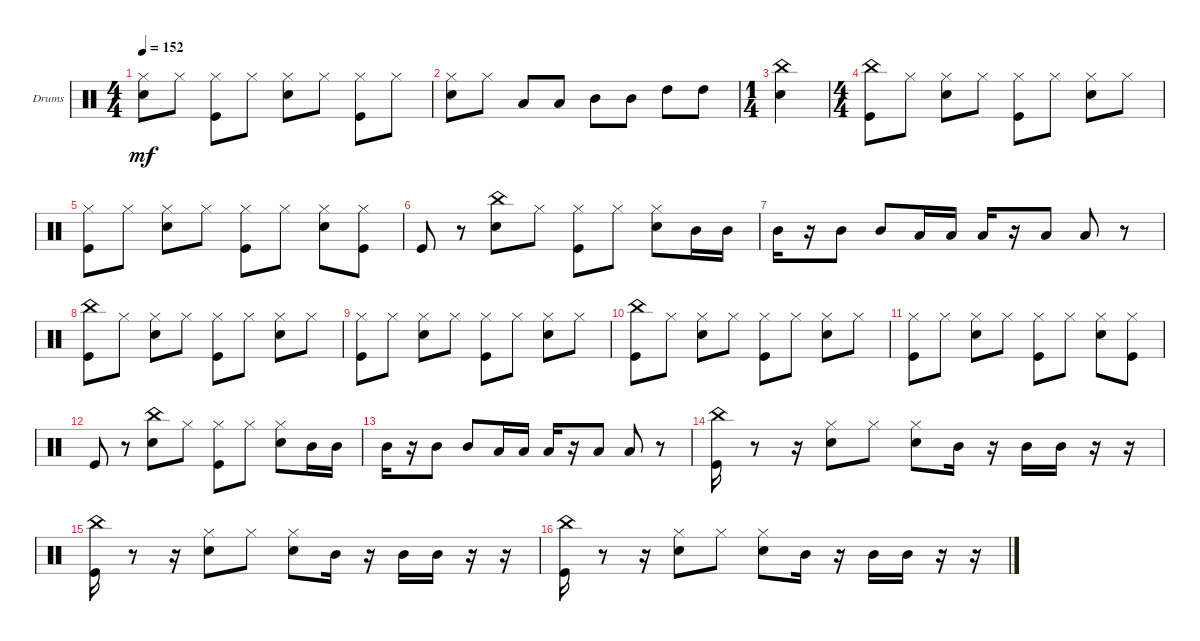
\defaultSystemsLayout 4
\bracketExtendMode groupsimilarinstruments
\firstSystemTrackNameOrientation horizontal
\otherSystemsTrackNameOrientation horizontal
\track ("Drumkit" "Drums") {instrument percussion}
\staff {score}
\articulation defaults
\ts (4 4)
\tempo 152
\clef neutral
\ks c
("Snare (hit) 2" "Hi-Hat (closed)").8{dy mf} "Hi-Hat (closed)".8 ("Hi-Hat (closed)" "Kick (hit)").8 "Hi-Hat (closed)".8 ("Hi-Hat (closed)" "Snare (hit) 2").8 "Hi-Hat (closed)".8 ("Hi-Hat (closed)" "Kick (hit)").8 "Hi-Hat (closed)".8 |
("Snare (hit) 2" "Hi-Hat (closed)").8 "Hi-Hat (closed)".8 "Low Tom (hit)".8 "Low Tom (hit)".8 "Mid Tom (hit)".8 "Mid Tom (hit)".8 "High Tom (hit)".8 "High Tom (hit)".8 |
\ts (1 4)
("Snare (hit) 2" "China (hit)").4 |
\ts (4 4)
("Kick (hit)" "China (hit)").8 "Hi-Hat (closed)".8 ("Hi-Hat (closed)" "Snare (hit) 2").8 "Hi-Hat (closed)".8 ("Hi-Hat (closed)" "Kick (hit)").8 "Hi-Hat (closed)".8 ("Hi-Hat (closed)" "Snare (hit) 2").8 "Hi-Hat (closed)".8 |
("Kick (hit)" "Hi-Hat (closed)").8 "Hi-Hat (closed)".8 ("Snare (hit) 2" "Hi-Hat (closed)").8 "Hi-Hat (closed)".8 ("Hi-Hat (closed)" "Kick (hit)").8 "Hi-Hat (closed)".8 ("Hi-Hat (closed)" "Snare (hit) 2").8 ("Hi-Hat (closed)" "Kick (hit)").8 |
"Kick (hit)".8 r.8 ("Snare (hit) 2" "China (hit)").8 "Hi-Hat (closed)".8 ("Hi-Hat (closed)" "Kick (hit)").8 "Hi-Hat (closed)".8 ("Snare (hit) 2" "Hi-Hat (closed)").8 "Mid Tom (hit)".16 "Mid Tom (hit)".16 |
"Mid Tom (hit)".16 r.16 "Mid Tom (hit)".8 "Mid Tom (hit)".8 "Low Tom (hit)".16 "Low Tom (hit)".16 "Low Tom (hit)".16 r.16 "Low Tom (hit)".8 "Low Tom (hit)".8 r.8 |
("China (hit)" "Kick (hit)").8 "Hi-Hat (closed)".8 ("Snare (hit) 2" "Hi-Hat (closed)").8 "Hi-Hat (closed)".8 ("Kick (hit)" "Hi-Hat (closed)").8 "Hi-Hat (closed)".8 ("Snare (hit) 2" "Hi-Hat (closed)").8 "Hi-Hat (closed)".8 |
("Kick (hit)" "Hi-Hat (closed)").8 "Hi-Hat (closed)".8 ("Snare (hit) 2" "Hi-Hat (closed)").8 "Hi-Hat (closed)".8 ("Hi-Hat (closed)" "Kick (hit)").8 "Hi-Hat (closed)".8 ("Hi-Hat (closed)" "Snare (hit) 2").8 "Hi-Hat (closed)".8 |
("Kick (hit)" "China (hit)").8 "Hi-Hat (closed)".8 ("Hi-Hat (closed)" "Snare (hit) 2").8 "Hi-Hat (closed)".8 ("Hi-Hat (closed)" "Kick (hit)").8 "Hi-Hat (closed)".8 ("Hi-Hat (closed)" "Snare (hit) 2").8 "Hi-Hat (closed)".8 |
("Kick (hit)" "Hi-Hat (closed)").8 "Hi-Hat (closed)".8 ("Snare (hit) 2" "Hi-Hat (closed)").8 "Hi-Hat (closed)".8 ("Hi-Hat (closed)" "Kick (hit)").8 "Hi-Hat (closed)".8 ("Hi-Hat (closed)" "Snare (hit) 2").8 ("Hi-Hat (closed)" "Kick (hit)").8 |
"Kick (hit)".8 r.8 ("Snare (hit) 2" "China (hit)").8 "Hi-Hat (closed)".8 ("Hi-Hat (closed)" "Kick (hit)").8 "Hi-Hat (closed)".8 ("Snare (hit) 2" "Hi-Hat (closed)").8 "Mid Tom (hit)".16 "Mid Tom (hit)".16 |
"Mid Tom (hit)".16 r.16 "Mid Tom (hit)".8 "Mid Tom (hit)".8 "Low Tom (hit)".16 "Low Tom (hit)".16 "Low Tom (hit)".16 r.16 "Low Tom (hit)".8 "Low Tom (hit)".8 r.8 |
("Kick (hit)" "China (hit)").16 r.8 r.16 ("Snare (hit) 2" "Hi-Hat (closed)").8 "Hi-Hat (closed)".8 ("Hi-Hat (closed)" "Snare (hit) 2").8 "Mid Tom (hit)".16 r.16 "Mid Tom (hit)".16 "Mid Tom (hit)".16 r.16 r.16 |
("Kick (hit)" "China (hit)").16 r.8 r.16 ("Snare (hit) 2" "Hi-Hat (closed)").8 "Hi-Hat (closed)".8 ("Hi-Hat (closed)" "Snare (hit) 2").8 "Mid Tom (hit)".16 r.16 "Mid Tom (hit)".16 "Mid Tom (hit)".16 r.16 r.16 |
("Kick (hit)" "China (hit)").16 r.8 r.16 ("Snare (hit) 2" "Hi-Hat (closed)").8 "Hi-Hat (closed)".8 ("Hi-Hat (closed)" "Snare (hit) 2").8 "Mid Tom (hit)".16 r.16 "Mid Tom (hit)".16 "Mid Tom (hit)".16 r.16 r.16
